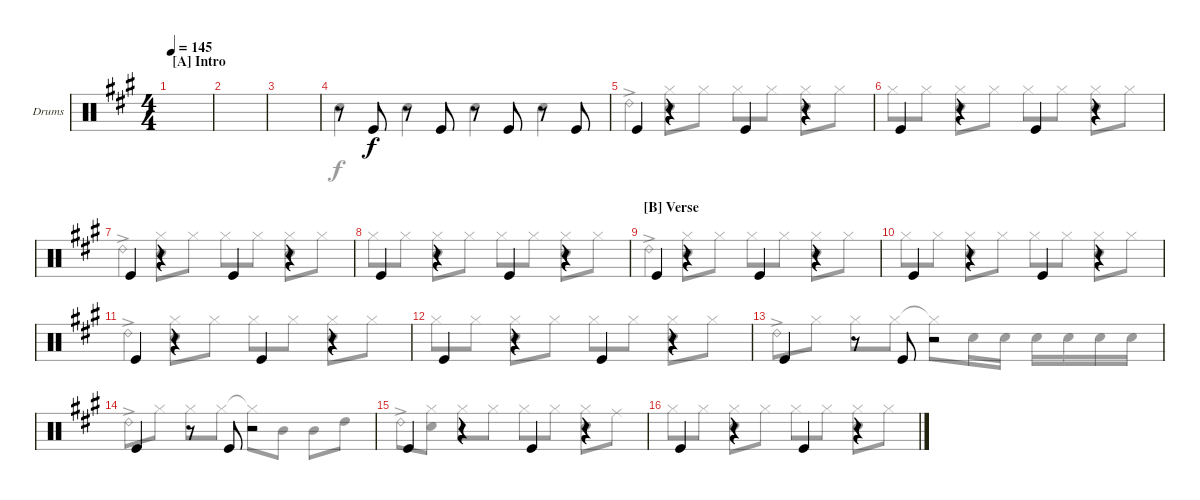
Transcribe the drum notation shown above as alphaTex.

\bracketExtendMode groupsimilarinstruments
\firstSystemTrackNameOrientation horizontal
\otherSystemsTrackNameOrientation horizontal
\track ("Drumkit" "Drums") {instrument percussion}
\staff {score}
\articulation defaults
\voice
\ts (4 4)
\section ("A" "Intro")
\tempo 145
\clef neutral
\scale
1.08827
\ks a
|
\scale
0.911728 |
\scale
1.05801 |
\scale
0.941992 r.8 "Kick (hit)".8 r.8 "Kick (hit)".8 r.8 "Kick (hit)".8 r.8 "Kick (hit)".8 |
\scale
1.05801 "Kick (hit)".4 r.4 "Kick (hit)".4 r.4 |
\scale
0.941992 "Kick (hit)".4 r.4 "Kick (hit)".4 r.4 |
\scale
1.05801 "Kick (hit)".4 r.4 "Kick (hit)".4 r.4 |
\scale
0.941992 "Kick (hit)".4 r.4 "Kick (hit)".4 r.4 |
\section ("B" "Verse")
\scale
1.05801 "Kick (hit)".4 r.4 "Kick (hit)".4 r.4 |
\scale
0.941992 "Kick (hit)".4 r.4 "Kick (hit)".4 r.4 |
\scale
1.05801 "Kick (hit)".4 r.4 "Kick (hit)".4 r.4 |
\scale
0.941992 "Kick (hit)".4 r.4 "Kick (hit)".4 r.4 |
\scale
1.05801 "Kick (hit)".4 r.8 "Kick (hit)".8 r.2 |
\scale
0.941992 "Kick (hit)".4 r.8 "Kick (hit)".8 r.2 |
\scale
1.05801 "Kick (hit)".4 r.4 "Kick (hit)".4 r.4 |
\scale
0.941992 "Kick (hit)".4 r.4 "Kick (hit)".4 r.4
\voice
\clef neutral
\ottava regular
\simile none
\scale
1.08827
\ks a
|
\scale
0.911728 |
\scale
1.05801 |
\scale
0.941992 "Snare (hit) 2".4 "Snare (hit) 2".4 "Snare (hit) 2".4 "Snare (hit) 2".4 |
\scale
1.05801 "Ride (bell) 2"{ac}.4 ("Snare (hit) 2" "Hi-Hat (closed)").8 "Hi-Hat (closed)".8 "Hi-Hat (closed)".8 "Hi-Hat (closed)".8 ("Hi-Hat (closed)" "Snare (hit) 2").8 "Hi-Hat (closed)".8 |
\scale
0.941992 "Hi-Hat (closed)".8 "Hi-Hat (closed)".8 ("Snare (hit) 2" "Hi-Hat (closed)").8 "Hi-Hat (closed)".8 "Hi-Hat (closed)".8 "Hi-Hat (closed)".8 ("Hi-Hat (closed)" "Snare (hit) 2").8 "Hi-Hat (closed)".8 |
\scale
1.05801 "Ride (bell) 2"{ac}.4 ("Snare (hit) 2" "Hi-Hat (closed)").8 "Hi-Hat (closed)".8 "Hi-Hat (closed)".8 "Hi-Hat (closed)".8 ("Hi-Hat (closed)" "Snare (hit) 2").8 "Hi-Hat (closed)".8 |
\scale
0.941992 "Hi-Hat (closed)".8 "Hi-Hat (closed)".8 ("Snare (hit) 2" "Hi-Hat (closed)").8 "Hi-Hat (closed)".8 "Hi-Hat (closed)".8 "Hi-Hat (closed)".8 ("Hi-Hat (closed)" "Snare (hit) 2").8 "Hi-Hat (closed)".8 |
\scale
1.05801 "Ride (bell) 2"{ac}.4 ("Snare (hit) 2" "Hi-Hat (closed)").8 "Hi-Hat (closed)".8 "Hi-Hat (closed)".8 "Hi-Hat (closed)".8 ("Hi-Hat (closed)" "Snare (hit) 2").8 "Hi-Hat (closed)".8 |
\scale
0.941992 "Hi-Hat (closed)".8 "Hi-Hat (closed)".8 ("Snare (hit) 2" "Hi-Hat (closed)").8 "Hi-Hat (closed)".8 "Hi-Hat (closed)".8 "Hi-Hat (closed)".8 ("Hi-Hat (closed)" "Snare (hit) 2").8 "Hi-Hat (closed)".8 |
\scale
1.05801 "Ride (bell) 2"{ac}.4 ("Snare (hit) 2" "Hi-Hat (closed)").8 "Hi-Hat (closed)".8 "Hi-Hat (closed)".8 "Hi-Hat (closed)".8 ("Hi-Hat (closed)" "Snare (hit) 2").8 "Hi-Hat (closed)".8 |
\scale
0.941992 "Hi-Hat (closed)".8 "Hi-Hat (closed)".8 ("Snare (hit) 2" "Hi-Hat (closed)").8 "Hi-Hat (closed)".8 "Hi-Hat (closed)".8 "Hi-Hat (closed)".8 ("Hi-Hat (closed)" "Snare (hit) 2").8 "Hi-Hat (closed)".8 |
\scale
1.05801 "Ride (bell) 2"{ac}.8 "Hi-Hat (closed)".8 "Hi-Hat (closed)".8 "Hi-Hat (closed)".8 "Hi-Hat (closed)"{t}.8 "Snare (hit) 2".16 "Snare (hit) 2".16 "Snare (hit) 2".16 "Snare (hit) 2".16 "Snare (hit) 2".16 "Snare (hit) 2".16 |
\scale
0.941992 "Ride (bell) 2"{ac}.8 "Hi-Hat (closed)".8 "Hi-Hat (closed)".8 "Hi-Hat (closed)".8 "Hi-Hat (closed)"{t}.8 "Mid Tom (hit)".8 "Mid Tom (hit)".8 "High Tom (hit)".8 |
\scale
1.05801 "Ride (bell) 2"{ac}.8 ("Snare (hit) 2" "Hi-Hat (closed)").8 "Hi-Hat (closed)".8 "Hi-Hat (closed)".8 "Hi-Hat (closed)".8 "Hi-Hat (closed)".8 ("Hi-Hat (closed)" "Snare (hit) 2").8 "Ride (middle)".8 |
\scale
0.941992 "Hi-Hat (closed)".8 "Hi-Hat (closed)".8 ("Hi-Hat (closed)" "Snare (hit) 2").8 "Hi-Hat (closed)".8 "Hi-Hat (closed)".8 "Hi-Hat (closed)".8 ("Hi-Hat (closed)" "Snare (hit) 2").8 "Hi-Hat (closed)".8
